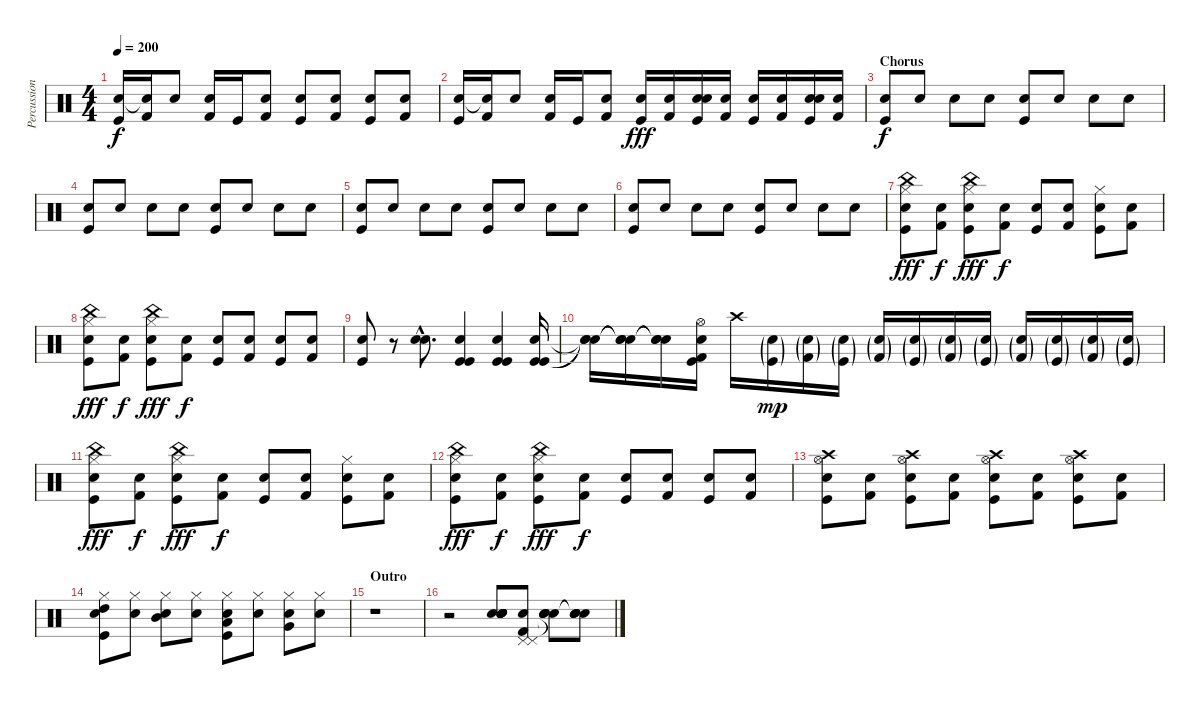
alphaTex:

\track ("Percussion" "Percussion") {instrument percussion}
\staff {score}
\articulation defaults
\ts (4 4)
\tempo 200
\clef neutral
\ks c
("Snare (hit) 2" "Kick (hit)").16{dy f} ("Snare (hit) 2"{t} "Kick (hit) 2").16 "Electric Snare (hit)".8 ("Snare (hit) 2" "Kick (hit) 2").16 "Kick (hit)".16 ("Electric Snare (hit)" "Kick (hit) 2").8 ("Snare (hit) 2" "Kick (hit)").8 ("Electric Snare (hit)" "Kick (hit) 2").8 ("Snare (hit) 2" "Kick (hit)").8 ("Electric Snare (hit)" "Kick (hit) 2").8 |
("Snare (hit) 2" "Kick (hit)").16 ("Snare (hit) 2"{t} "Kick (hit) 2").16 "Electric Snare (hit)".8 ("Snare (hit) 2" "Kick (hit) 2").16 "Kick (hit)".16 ("Electric Snare (hit)" "Kick (hit) 2").8 ("Snare (hit) 2" "Kick (hit)").16{dy fff} ("Snare (hit) 2" "Kick (hit) 2").16 ("Snare (hit) 2" "Electric Snare (hit)" "Kick (hit)").16 ("Snare (hit) 2" "Kick (hit) 2").16 ("Electric Snare (hit)" "Kick (hit)").16 ("Snare (hit) 2" "Kick (hit) 2").16 ("Snare (hit) 2" "Electric Snare (hit)" "Kick (hit)").16 ("Electric Snare (hit)" "Kick (hit) 2").16 |
\section ("" "Chorus")
("Snare (hit) 2" "Kick (hit)").8{dy f} "Snare (hit) 2".8 "Electric Snare (hit)".8 "Snare (hit) 2".8 ("Snare (hit) 2" "Kick (hit)").8 "Snare (hit) 2".8 "Electric Snare (hit)".8 "Snare (hit) 2".8 |
("Snare (hit) 2" "Kick (hit)").8 "Snare (hit) 2".8 "Electric Snare (hit)".8 "Snare (hit) 2".8 ("Snare (hit) 2" "Kick (hit)").8 "Snare (hit) 2".8 "Electric Snare (hit)".8 "Snare (hit) 2".8 |
("Snare (hit) 2" "Kick (hit)").8 "Snare (hit) 2".8 "Electric Snare (hit)".8 "Snare (hit) 2".8 ("Snare (hit) 2" "Kick (hit)").8 "Snare (hit) 2".8 "Electric Snare (hit)".8 "Snare (hit) 2".8 |
("Snare (hit) 2" "Kick (hit)").8 "Snare (hit) 2".8 "Electric Snare (hit)".8 "Snare (hit) 2".8 ("Snare (hit) 2" "Kick (hit)").8 "Snare (hit) 2".8 "Electric Snare (hit)".8 "Snare (hit) 2".8 |
("Snare (hit) 2" "Kick (hit)" "China (hit)" "Hi-Hat (closed)").8{dy fff} ("Electric Snare (hit)" "Kick (hit) 2").8{dy f} ("Snare (hit) 2" "Kick (hit)" "China (hit)" "Hi-Hat (closed)").8{dy fff} ("Electric Snare (hit)" "Kick (hit) 2").8{dy f} ("Snare (hit) 2" "Kick (hit)").8 ("Electric Snare (hit)" "Kick (hit) 2").8 ("Snare (hit) 2" "Kick (hit)" "Hi-Hat (closed)").8 ("Electric Snare (hit)" "Kick (hit) 2").8 |
("Snare (hit) 2" "Kick (hit)" "China (hit)" "Hi-Hat (closed)").8{dy fff} ("Electric Snare (hit)" "Kick (hit) 2").8{dy f} ("Snare (hit) 2" "Kick (hit)" "China (hit)" "Hi-Hat (closed)").8{dy fff} ("Electric Snare (hit)" "Kick (hit) 2").8{dy f} ("Snare (hit) 2" "Kick (hit)").8 ("Electric Snare (hit)" "Kick (hit) 2").8 ("Snare (hit) 2" "Kick (hit)").8 ("Electric Snare (hit)" "Kick (hit) 2").8 |
("Snare (hit) 2" "Kick (hit)").8 r.8 ("Snare (hit) 2"{hac} "Electric Snare (hit)"{hac}).8{d} ("Snare (hit) 2" "Kick (hit)" "Kick (hit)").4 ("Snare (hit) 2" "Kick (hit)" "Kick (hit)").4 ("Snare (hit) 2" "Kick (hit)" "Kick (hit)").16 |
("Snare (hit)"{t} "Snare (hit)"{t} "Snare (hit)"{t}).16 ("Snare (hit)"{t} "Snare (hit)"{t} "Snare (hit)"{t}).16 ("Snare (hit)"{t} "Snare (hit)"{t} "Snare (hit)"{t}).16 ("Snare (hit) 2" "Kick (hit) 2" "Kick (hit)" "Hi-Hat (open)").16 "Crash high (hit)".16 ("Snare (hit) 2"{g} "Kick (hit)"{g}).16{dy mp} ("Electric Snare (hit)"{g} "Kick (hit) 2"{g}).16 ("Snare (hit) 2"{g} "Kick (hit)"{g}).16 ("Snare (hit) 2"{g} "Kick (hit) 2"{g}).16 ("Electric Snare (hit)"{g} "Kick (hit)"{g}).16 ("Electric Snare (hit)"{g} "Kick (hit) 2"{g}).16 ("Electric Snare (hit)"{g} "Kick (hit)"{g}).16 ("Snare (hit) 2"{g} "Kick (hit) 2"{g}).16 ("Snare (hit) 2"{g} "Kick (hit)"{g}).16 ("Electric Snare (hit)"{g} "Kick (hit) 2"{g}).16 ("Snare (hit) 2"{g} "Kick (hit)"{g}).16 |
("Snare (hit) 2" "Kick (hit)" "China (hit)" "Hi-Hat (closed)").8{dy fff} ("Electric Snare (hit)" "Kick (hit) 2").8{dy f} ("Snare (hit) 2" "Kick (hit)" "China (hit)" "Hi-Hat (closed)").8{dy fff} ("Electric Snare (hit)" "Kick (hit) 2").8{dy f} ("Snare (hit) 2" "Kick (hit)").8 ("Electric Snare (hit)" "Kick (hit) 2").8 ("Snare (hit) 2" "Kick (hit)" "Hi-Hat (closed)").8 ("Electric Snare (hit)" "Kick (hit) 2").8 |
("Snare (hit) 2" "Kick (hit)" "China (hit)" "Hi-Hat (closed)").8{dy fff} ("Electric Snare (hit)" "Kick (hit) 2").8{dy f} ("Snare (hit) 2" "Kick (hit)" "China (hit)" "Hi-Hat (closed)").8{dy fff} ("Electric Snare (hit)" "Kick (hit) 2").8{dy f} ("Snare (hit) 2" "Kick (hit)").8 ("Electric Snare (hit)" "Kick (hit) 2").8 ("Snare (hit) 2" "Kick (hit)").8 ("Electric Snare (hit)" "Kick (hit) 2").8 |
("Snare (hit) 2" "Kick (hit)" "Crash high (hit)" "Hi-Hat (open)").8 ("Electric Snare (hit)" "Kick (hit) 2").8 ("Snare (hit) 2" "Kick (hit)" "Crash high (hit)" "Hi-Hat (open)").8 ("Electric Snare (hit)" "Kick (hit) 2").8 ("Snare (hit) 2" "Kick (hit)" "Crash high (hit)" "Hi-Hat (open)").8 ("Electric Snare (hit)" "Kick (hit) 2").8 ("Snare (hit) 2" "Kick (hit)" "Crash high (hit)" "Hi-Hat (open)").8 ("Electric Snare (hit)" "Kick (hit) 2").8 |
("Kick (hit)" "High Tom (hit)" "Snare (hit) 2" "Hi-Hat (closed)").8 ("Electric Snare (hit)" "Hi-Hat (closed)").8 ("Snare (hit) 2" "Mid Tom (hit)" "Hi-Hat (closed)").8 ("Electric Snare (hit)" "Hi-Hat (closed)").8 ("Snare (hit) 2" "Low Floor Tom (hit)" "Kick (hit)" "Hi-Hat (closed)").8 ("Electric Snare (hit)" "Hi-Hat (closed)").8 ("Snare (hit) 2" "Very Low Tom (hit)" "Hi-Hat (closed)").8 ("Electric Snare (hit)" "Hi-Hat (closed)").8 |
\section ("" "Outro")
r.1 |
r.2 ("Snare (hit) 2" "Snare (hit) 2" "Snare (hit) 2" "Snare (hit) 2" "Snare (hit) 2" "Snare (hit) 2").8 ("Snare (hit) 2" "Pedal Hi-Hat (hit)" "Pedal Hi-Hat (hit)" "Kick (hit) 2").8 ("Snare (hit)"{t} "Snare (hit) 2" "Snare (hit) 2" "Snare (hit)"{t}).8 ("Snare (hit)"{t} "Snare (hit) 2" "Snare (hit) 2" "Snare (hit)"{t}).8
